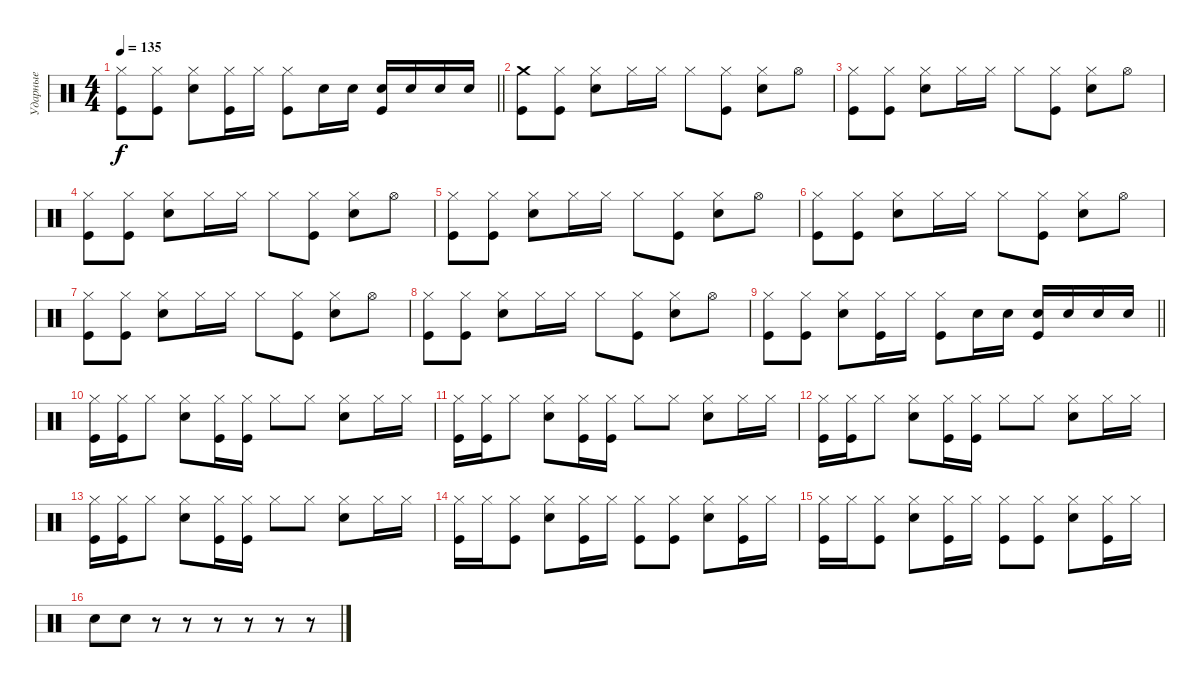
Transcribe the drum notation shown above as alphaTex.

\track ("Ударные" "Ударные") {instrument percussion}
\staff {score}
\articulation defaults
\ts (4 4)
\tempo 135
\clef neutral
\barLineRight lightlight
\ks c
("Hi-Hat (closed)" "Kick (hit)").8{dy f} ("Hi-Hat (closed)" "Kick (hit)").8 ("Hi-Hat (closed)" "Electric Snare (hit)").8 ("Hi-Hat (closed)" "Kick (hit)").16 "Hi-Hat (closed)".16 ("Hi-Hat (closed)" "Kick (hit)").8 "Electric Snare (hit)".16 "Electric Snare (hit)".16 ("Electric Snare (hit)" "Kick (hit)").16 "Electric Snare (hit)".16 "Electric Snare (hit)".16 "Electric Snare (hit)".16 |
\section ("" " ")
("Crash medium (hit)" "Kick (hit)").8 ("Hi-Hat (closed)" "Kick (hit)").8 ("Hi-Hat (closed)" "Electric Snare (hit)").8 "Hi-Hat (closed)".16 "Hi-Hat (closed)".16 "Hi-Hat (closed)".8 ("Hi-Hat (closed)" "Kick (hit)").8 ("Hi-Hat (closed)" "Electric Snare (hit)").8 "Hi-Hat (open)".8 |
("Hi-Hat (closed)" "Kick (hit)").8 ("Hi-Hat (closed)" "Kick (hit)").8 ("Hi-Hat (closed)" "Electric Snare (hit)").8 "Hi-Hat (closed)".16 "Hi-Hat (closed)".16 "Hi-Hat (closed)".8 ("Hi-Hat (closed)" "Kick (hit)").8 ("Hi-Hat (closed)" "Electric Snare (hit)").8 "Hi-Hat (open)".8 |
("Hi-Hat (closed)" "Kick (hit)").8 ("Hi-Hat (closed)" "Kick (hit)").8 ("Hi-Hat (closed)" "Electric Snare (hit)").8 "Hi-Hat (closed)".16 "Hi-Hat (closed)".16 "Hi-Hat (closed)".8 ("Hi-Hat (closed)" "Kick (hit)").8 ("Hi-Hat (closed)" "Electric Snare (hit)").8 "Hi-Hat (open)".8 |
("Hi-Hat (closed)" "Kick (hit)").8 ("Hi-Hat (closed)" "Kick (hit)").8 ("Hi-Hat (closed)" "Electric Snare (hit)").8 "Hi-Hat (closed)".16 "Hi-Hat (closed)".16 "Hi-Hat (closed)".8 ("Hi-Hat (closed)" "Kick (hit)").8 ("Hi-Hat (closed)" "Electric Snare (hit)").8 "Hi-Hat (open)".8 |
("Hi-Hat (closed)" "Kick (hit)").8 ("Hi-Hat (closed)" "Kick (hit)").8 ("Hi-Hat (closed)" "Electric Snare (hit)").8 "Hi-Hat (closed)".16 "Hi-Hat (closed)".16 "Hi-Hat (closed)".8 ("Hi-Hat (closed)" "Kick (hit)").8 ("Hi-Hat (closed)" "Electric Snare (hit)").8 "Hi-Hat (open)".8 |
("Hi-Hat (closed)" "Kick (hit)").8 ("Hi-Hat (closed)" "Kick (hit)").8 ("Hi-Hat (closed)" "Electric Snare (hit)").8 "Hi-Hat (closed)".16 "Hi-Hat (closed)".16 "Hi-Hat (closed)".8 ("Hi-Hat (closed)" "Kick (hit)").8 ("Hi-Hat (closed)" "Electric Snare (hit)").8 "Hi-Hat (open)".8 |
("Hi-Hat (closed)" "Kick (hit)").8 ("Hi-Hat (closed)" "Kick (hit)").8 ("Hi-Hat (closed)" "Electric Snare (hit)").8 "Hi-Hat (closed)".16 "Hi-Hat (closed)".16 "Hi-Hat (closed)".8 ("Hi-Hat (closed)" "Kick (hit)").8 ("Hi-Hat (closed)" "Electric Snare (hit)").8 "Hi-Hat (open)".8 |
\barLineRight lightlight
("Hi-Hat (closed)" "Kick (hit)").8 ("Hi-Hat (closed)" "Kick (hit)").8 ("Hi-Hat (closed)" "Electric Snare (hit)").8 ("Hi-Hat (closed)" "Kick (hit)").16 "Hi-Hat (closed)".16 ("Hi-Hat (closed)" "Kick (hit)").8 "Electric Snare (hit)".16 "Electric Snare (hit)".16 ("Electric Snare (hit)" "Kick (hit)").16 "Electric Snare (hit)".16 "Electric Snare (hit)".16 "Electric Snare (hit)".16 |
\section ("" " ")
("Hi-Hat (closed)" "Kick (hit)").16 ("Hi-Hat (closed)" "Kick (hit)").16 "Hi-Hat (closed)".8 ("Hi-Hat (closed)" "Electric Snare (hit)").8 ("Hi-Hat (closed)" "Kick (hit)").16 ("Hi-Hat (closed)" "Kick (hit)").16 "Hi-Hat (closed)".8 "Hi-Hat (closed)".8 ("Hi-Hat (closed)" "Electric Snare (hit)").8 "Hi-Hat (closed)".16 "Hi-Hat (closed)".16 |
("Hi-Hat (closed)" "Kick (hit)").16 ("Hi-Hat (closed)" "Kick (hit)").16 "Hi-Hat (closed)".8 ("Hi-Hat (closed)" "Electric Snare (hit)").8 ("Hi-Hat (closed)" "Kick (hit)").16 ("Hi-Hat (closed)" "Kick (hit)").16 "Hi-Hat (closed)".8 "Hi-Hat (closed)".8 ("Hi-Hat (closed)" "Electric Snare (hit)").8 "Hi-Hat (closed)".16 "Hi-Hat (closed)".16 |
("Hi-Hat (closed)" "Kick (hit)").16 ("Hi-Hat (closed)" "Kick (hit)").16 "Hi-Hat (closed)".8 ("Hi-Hat (closed)" "Electric Snare (hit)").8 ("Hi-Hat (closed)" "Kick (hit)").16 ("Hi-Hat (closed)" "Kick (hit)").16 "Hi-Hat (closed)".8 "Hi-Hat (closed)".8 ("Hi-Hat (closed)" "Electric Snare (hit)").8 "Hi-Hat (closed)".16 "Hi-Hat (closed)".16 |
("Hi-Hat (closed)" "Kick (hit)").16 ("Hi-Hat (closed)" "Kick (hit)").16 "Hi-Hat (closed)".8 ("Hi-Hat (closed)" "Electric Snare (hit)").8 ("Hi-Hat (closed)" "Kick (hit)").16 ("Hi-Hat (closed)" "Kick (hit)").16 "Hi-Hat (closed)".8 "Hi-Hat (closed)".8 ("Hi-Hat (closed)" "Electric Snare (hit)").8 "Hi-Hat (closed)".16 "Hi-Hat (closed)".16 |
("Hi-Hat (closed)" "Kick (hit)").16 "Hi-Hat (closed)".16 ("Hi-Hat (closed)" "Kick (hit)").8 ("Hi-Hat (closed)" "Electric Snare (hit)").8 ("Hi-Hat (closed)" "Kick (hit)").16 "Hi-Hat (closed)".16 ("Hi-Hat (closed)" "Kick (hit)").8 ("Hi-Hat (closed)" "Kick (hit)").8 ("Hi-Hat (closed)" "Electric Snare (hit)").8 ("Hi-Hat (closed)" "Kick (hit)").16 "Hi-Hat (closed)".16 |
("Hi-Hat (closed)" "Kick (hit)").16 "Hi-Hat (closed)".16 ("Hi-Hat (closed)" "Kick (hit)").8 ("Hi-Hat (closed)" "Electric Snare (hit)").8 ("Hi-Hat (closed)" "Kick (hit)").16 "Hi-Hat (closed)".16 ("Hi-Hat (closed)" "Kick (hit)").8 ("Hi-Hat (closed)" "Kick (hit)").8 ("Hi-Hat (closed)" "Electric Snare (hit)").8 ("Hi-Hat (closed)" "Kick (hit)").16 "Hi-Hat (closed)".16 |
"Electric Snare (hit)".8 "Electric Snare (hit)".8 r.8 r.8 r.8 r.8 r.8 r.8
